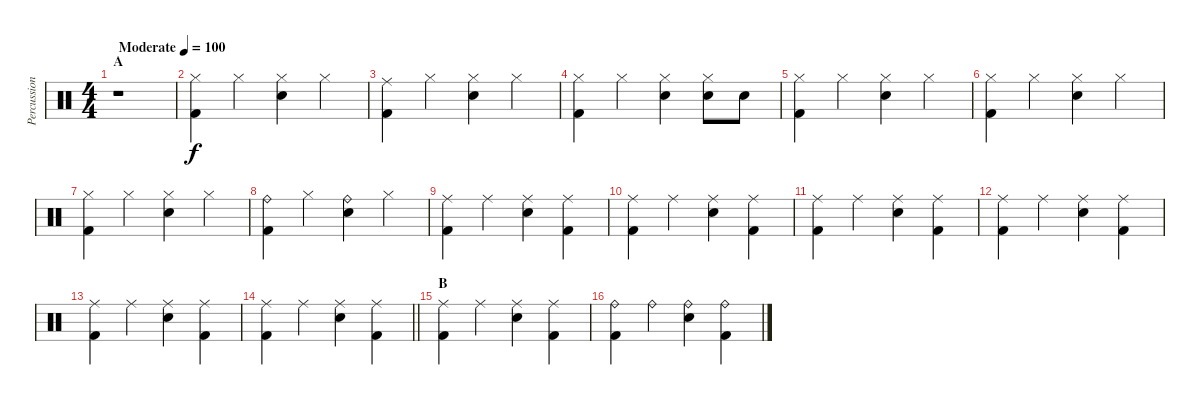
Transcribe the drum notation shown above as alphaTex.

\track ("Percussion" "Percussion") {instrument percussion}
\staff {score}
\articulation defaults
\ts (4 4)
\section ("" "A")
\tempo (100 "Moderate")
\clef neutral
\ks c
r.1{dy f} |
("Hi-Hat (closed)" "Kick (hit) 2").4 "Hi-Hat (closed)".4 ("Hi-Hat (closed)" "Snare (hit) 2").4 "Hi-Hat (closed)".4 |
("Ride (middle)" "Kick (hit) 2").4 "Hi-Hat (closed)".4 ("Hi-Hat (closed)" "Snare (hit) 2").4 "Hi-Hat (closed)".4 |
("Hi-Hat (closed)" "Kick (hit) 2").4 "Hi-Hat (closed)".4 ("Hi-Hat (closed)" "Snare (hit) 2").4 ("Hi-Hat (closed)" "Snare (hit) 2").8 "Snare (hit) 2".8 |
("Hi-Hat (closed)" "Kick (hit) 2").4 "Hi-Hat (closed)".4 ("Hi-Hat (closed)" "Snare (hit) 2").4 "Hi-Hat (closed)".4 |
("Hi-Hat (closed)" "Kick (hit) 2").4 "Hi-Hat (closed)".4 ("Hi-Hat (closed)" "Snare (hit) 2").4 "Hi-Hat (closed)".4 |
("Hi-Hat (closed)" "Kick (hit) 2").4 "Hi-Hat (closed)".4 ("Hi-Hat (closed)" "Snare (hit) 2").4 "Hi-Hat (closed)".4 |
("Ride (bell)" "Kick (hit) 2").4 "Hi-Hat (closed)".4 ("Ride (bell)" "Snare (hit) 2").4 "Hi-Hat (closed)".4 |
("Ride (middle)" "Kick (hit) 2").4 "Ride (middle)".4 ("Ride (middle)" "Snare (hit) 2").4 ("Ride (middle)" "Kick (hit) 2").4 |
("Ride (middle)" "Kick (hit) 2").4 "Ride (middle)".4 ("Ride (middle)" "Snare (hit) 2").4 ("Ride (middle)" "Kick (hit) 2").4 |
("Ride (middle)" "Kick (hit) 2").4 "Ride (middle)".4 ("Ride (middle)" "Snare (hit) 2").4 ("Ride (middle)" "Kick (hit) 2").4 |
("Ride (middle)" "Kick (hit) 2").4 "Ride (middle)".4 ("Ride (middle)" "Snare (hit) 2").4 ("Ride (middle)" "Kick (hit) 2").4 |
("Ride (middle)" "Kick (hit) 2").4 "Ride (middle)".4 ("Ride (middle)" "Snare (hit) 2").4 ("Ride (middle)" "Kick (hit) 2").4 |
\barLineRight lightlight
("Ride (middle)" "Kick (hit) 2").4 "Ride (middle)".4 ("Ride (middle)" "Snare (hit) 2").4 ("Ride (middle)" "Kick (hit) 2").4 |
\section ("" "B")
("Ride (middle)" "Kick (hit) 2").4 "Ride (middle)".4 ("Ride (middle)" "Snare (hit) 2").4 ("Ride (middle)" "Kick (hit) 2").4 |
("Ride (bell)" "Kick (hit) 2").4 "Ride (bell)".4 ("Ride (bell)" "Snare (hit) 2").4 ("Ride (bell)" "Kick (hit) 2").4
